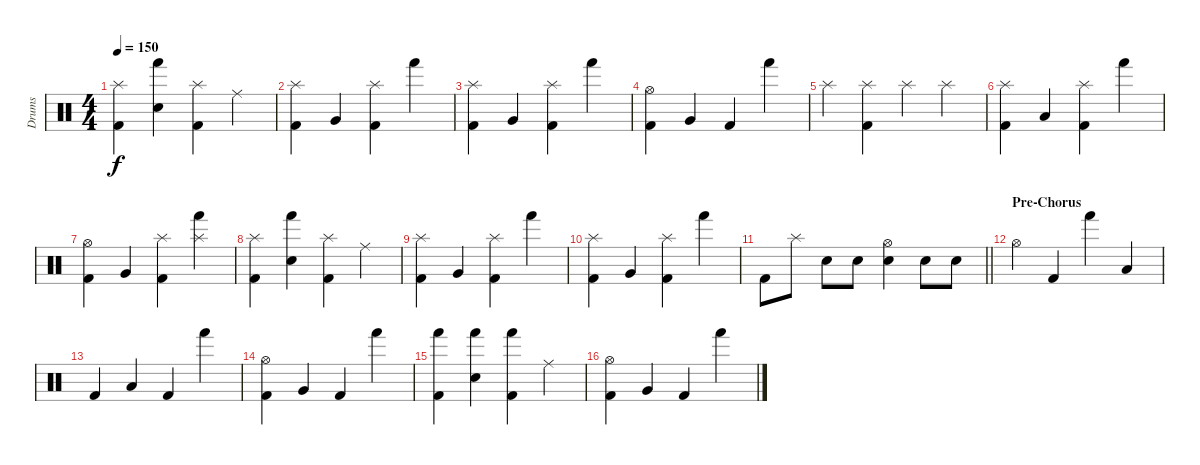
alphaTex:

\track ("Drums" "Drums") {instrument percussion}
\staff {score}
\articulation defaults
\ts (4 4)
\tempo 150
\clef neutral
\ks c
("Splash (hit)" "Kick (hit) 2").4{dy f} ("Hand (hit)" "Electric Snare (hit)").4 ("Splash (hit)" "Kick (hit) 2").4 "Ride (middle)".4 |
("Splash (hit)" "Kick (hit) 2").4 "Very Low Tom (hit)".4 ("Splash (hit)" "Kick (hit) 2").4 "Hand (hit)".4 |
("Splash (hit)" "Kick (hit) 2").4 "Very Low Tom (hit)".4 ("Splash (hit)" "Kick (hit) 2").4 "Hand (hit)".4 |
("Hi-Hat (open)" "Kick (hit) 2").4 "Very Low Tom (hit)".4 "Kick (hit) 2".4 "Hand (hit)".4 |
"Splash (hit)".4 ("Splash (hit)" "Kick (hit) 2").4 "Splash (hit)".4 "Splash (hit)".4 |
("Splash (hit)" "Kick (hit) 2").4 "Low Floor Tom (hit)".4 ("Splash (hit)" "Kick (hit) 2").4 "Hand (hit)".4 |
("Hi-Hat (open)" "Kick (hit) 2").4 "Very Low Tom (hit)".4 ("Splash (hit)" "Kick (hit) 2").4 ("Splash (hit)" "Hand (hit)").4 |
("Splash (hit)" "Kick (hit) 2").4 ("Hand (hit)" "Electric Snare (hit)").4 ("Splash (hit)" "Kick (hit) 2").4 "Ride (middle)".4 |
("Splash (hit)" "Kick (hit) 2").4 "Very Low Tom (hit)".4 ("Splash (hit)" "Kick (hit) 2").4 "Hand (hit)".4 |
("Splash (hit)" "Kick (hit) 2").4 "Very Low Tom (hit)".4 ("Splash (hit)" "Kick (hit) 2").4 "Hand (hit)".4 |
\barLineRight lightlight "Kick (hit) 2".8 "Splash (hit)".8 "Electric Snare (hit)".8 "Electric Snare (hit)".8
("Hi-Hat (open)" "Snare (hit) 2").4 "Electric Snare (hit)".8 "Electric Snare (hit)".8 |
\section ("" "Pre-Chorus")
"Hi-Hat (open)".4 "Kick (hit) 2".4 "Hand (hit)".4 "Low Floor Tom (hit)".4 |
"Kick (hit) 2".4 "Low Floor Tom (hit)".4 "Kick (hit) 2".4 "Hand (hit)".4 |
("Hi-Hat (open)" "Kick (hit) 2").4 "Very Low Tom (hit)".4 "Kick (hit) 2".4 "Hand (hit)".4 |
("Hand (hit)" "Kick (hit) 2").4 ("Hand (hit)" "Electric Snare (hit)").4 ("Hand (hit)" "Kick (hit) 2").4 "Ride (middle)".4 |
("Hi-Hat (open)" "Kick (hit) 2").4 "Very Low Tom (hit)".4 "Kick (hit) 2".4 "Hand (hit)".4
